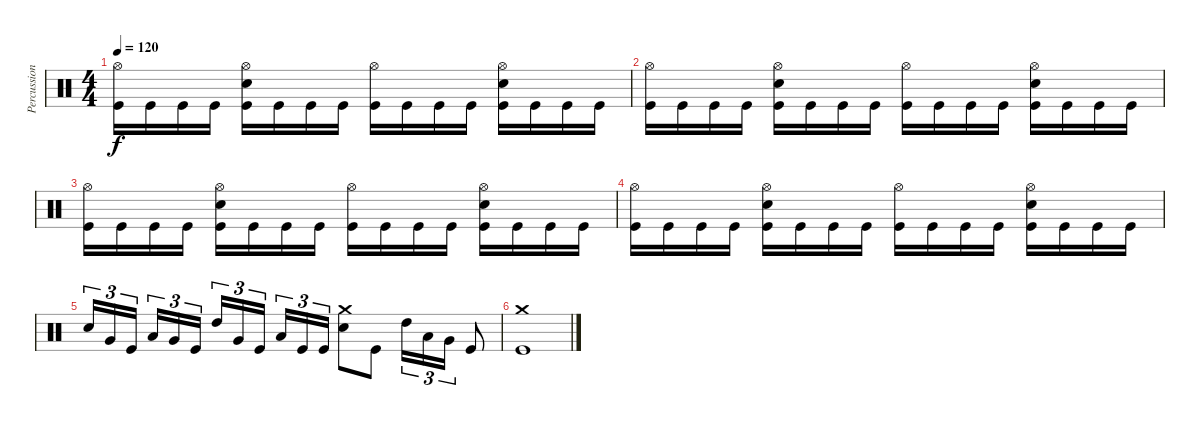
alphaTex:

\track ("Percussion" "Percussion") {instrument percussion}
\staff {score}
\articulation defaults
\ts (4 4)
\tempo 120
\clef neutral
\ks c
("Hi-Hat (open)" "Kick (hit)").16{dy f} "Kick (hit)".16 "Kick (hit)".16 "Kick (hit)".16 ("Hi-Hat (open)" "Electric Snare (hit)" "Kick (hit)").16 "Kick (hit)".16 "Kick (hit)".16 "Kick (hit)".16 ("Hi-Hat (open)" "Kick (hit)").16 "Kick (hit)".16 "Kick (hit)".16 "Kick (hit)".16 ("Hi-Hat (open)" "Electric Snare (hit)" "Kick (hit)").16 "Kick (hit)".16 "Kick (hit)".16 "Kick (hit)".16 |
("Hi-Hat (open)" "Kick (hit)").16 "Kick (hit)".16 "Kick (hit)".16 "Kick (hit)".16 ("Hi-Hat (open)" "Electric Snare (hit)" "Kick (hit)").16 "Kick (hit)".16 "Kick (hit)".16 "Kick (hit)".16 ("Hi-Hat (open)" "Kick (hit)").16 "Kick (hit)".16 "Kick (hit)".16 "Kick (hit)".16 ("Hi-Hat (open)" "Electric Snare (hit)" "Kick (hit)").16 "Kick (hit)".16 "Kick (hit)".16 "Kick (hit)".16 |
("Hi-Hat (open)" "Kick (hit)").16 "Kick (hit)".16 "Kick (hit)".16 "Kick (hit)".16 ("Hi-Hat (open)" "Electric Snare (hit)" "Kick (hit)").16 "Kick (hit)".16 "Kick (hit)".16 "Kick (hit)".16 ("Hi-Hat (open)" "Kick (hit)").16 "Kick (hit)".16 "Kick (hit)".16 "Kick (hit)".16 ("Hi-Hat (open)" "Electric Snare (hit)" "Kick (hit)").16 "Kick (hit)".16 "Kick (hit)".16 "Kick (hit)".16 |
("Hi-Hat (open)" "Kick (hit)").16 "Kick (hit)".16 "Kick (hit)".16 "Kick (hit)".16 ("Hi-Hat (open)" "Electric Snare (hit)" "Kick (hit)").16 "Kick (hit)".16 "Kick (hit)".16 "Kick (hit)".16 ("Hi-Hat (open)" "Kick (hit)").16 "Kick (hit)".16 "Kick (hit)".16 "Kick (hit)".16 ("Hi-Hat (open)" "Electric Snare (hit)" "Kick (hit)").16 "Kick (hit)".16 "Kick (hit)".16 "Kick (hit)".16 |
"Electric Snare (hit)".16{tu (3 2)} "Very Low Tom (hit)".16{tu (3 2)} "Kick (hit)".16{tu (3 2)} "Low Tom (hit)".16{tu (3 2)} "Very Low Tom (hit)".16{tu (3 2)} "Kick (hit)".16{tu (3 2)} "High Tom (hit)".16{tu (3 2)} "Very Low Tom (hit)".16{tu (3 2)} "Kick (hit)".16{tu (3 2)} "Low Tom (hit)".16{tu (3 2)} "Kick (hit)".16{tu (3 2)} "Kick (hit)".16{tu (3 2)} ("Crash medium (hit)" "Electric Snare (hit)").8 "Kick (hit)".8 "High Tom (hit)".16{tu (3 2)} "Low Tom (hit)".16{tu (3 2)} "Very Low Tom (hit)".16{tu (3 2)} "Kick (hit)".8 |
("Crash medium (hit)" "Kick (hit)").1
